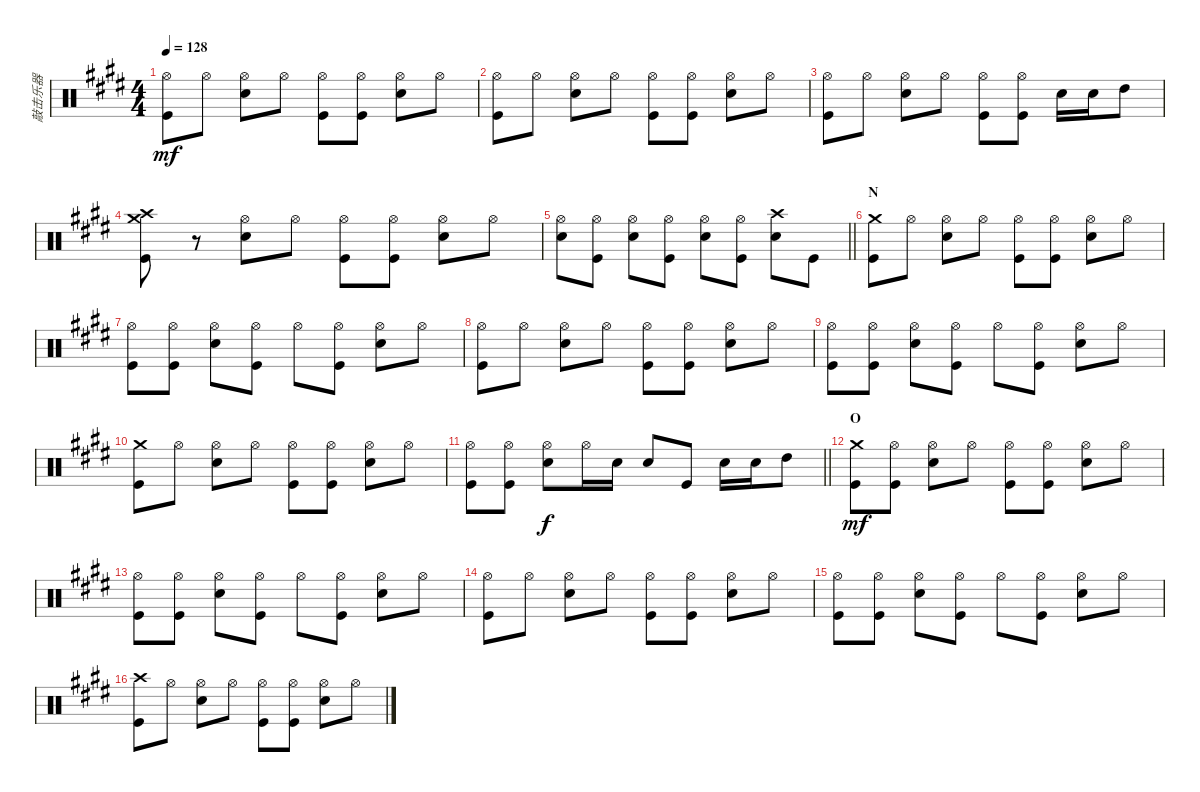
\track ("敲击乐器" "敲击乐器") {instrument percussion}
\staff {score}
\articulation defaults
\ts (4 4)
\tempo 128
\clef neutral
\ks e
("Hi-Hat (open)" "Kick (hit)").8{dy mf} "Hi-Hat (open)".8 ("Hi-Hat (open)" "Snare (hit) 2").8 "Hi-Hat (open)".8 ("Hi-Hat (open)" "Kick (hit)").8 ("Hi-Hat (open)" "Kick (hit)").8 ("Hi-Hat (open)" "Snare (hit) 2").8 "Hi-Hat (open)".8 |
("Hi-Hat (open)" "Kick (hit)").8 "Hi-Hat (open)".8 ("Hi-Hat (open)" "Snare (hit) 2").8 "Hi-Hat (open)".8 ("Hi-Hat (open)" "Kick (hit)").8 ("Hi-Hat (open)" "Kick (hit)").8 ("Hi-Hat (open)" "Snare (hit) 2").8 "Hi-Hat (open)".8 |
("Hi-Hat (open)" "Kick (hit)").8 "Hi-Hat (open)".8 ("Hi-Hat (open)" "Snare (hit) 2").8 "Hi-Hat (open)".8 ("Hi-Hat (open)" "Kick (hit)").8 ("Hi-Hat (open)" "Kick (hit)").8 "Snare (hit) 2".16 "Snare (hit) 2".16 "High Tom (hit)".8 |
("Crash medium (hit)" "Crash high (hit)" "Kick (hit)").8 r.8 ("Hi-Hat (open)" "Snare (hit) 2").8 "Hi-Hat (open)".8 ("Hi-Hat (open)" "Kick (hit)").8 ("Hi-Hat (open)" "Kick (hit)").8 ("Hi-Hat (open)" "Snare (hit) 2").8 "Hi-Hat (open)".8 |
\barLineRight lightlight
("Hi-Hat (open)" "Snare (hit) 2").8 ("Hi-Hat (open)" "Kick (hit)").8 ("Hi-Hat (open)" "Snare (hit) 2").8 ("Hi-Hat (open)" "Kick (hit)").8 ("Hi-Hat (open)" "Snare (hit) 2").8 ("Hi-Hat (open)" "Kick (hit)").8 ("Crash high (hit)" "Snare (hit) 2").8 "Kick (hit)".8 |
\section ("" "N")
("Crash medium (hit)" "Kick (hit)").8 "Hi-Hat (open)".8 ("Hi-Hat (open)" "Snare (hit) 2").8 "Hi-Hat (open)".8 ("Hi-Hat (open)" "Kick (hit)").8 ("Hi-Hat (open)" "Kick (hit)").8 ("Hi-Hat (open)" "Snare (hit) 2").8 "Hi-Hat (open)".8 |
("Hi-Hat (open)" "Kick (hit)").8 ("Hi-Hat (open)" "Kick (hit)").8 ("Hi-Hat (open)" "Snare (hit) 2").8 ("Hi-Hat (open)" "Kick (hit)").8 "Hi-Hat (open)".8 ("Hi-Hat (open)" "Kick (hit)").8 ("Hi-Hat (open)" "Snare (hit) 2").8 "Hi-Hat (open)".8 |
("Hi-Hat (open)" "Kick (hit)").8 "Hi-Hat (open)".8 ("Hi-Hat (open)" "Snare (hit) 2").8 "Hi-Hat (open)".8 ("Hi-Hat (open)" "Kick (hit)").8 ("Hi-Hat (open)" "Kick (hit)").8 ("Hi-Hat (open)" "Snare (hit) 2").8 "Hi-Hat (open)".8 |
("Hi-Hat (open)" "Kick (hit)").8 ("Hi-Hat (open)" "Kick (hit)").8 ("Hi-Hat (open)" "Snare (hit) 2").8 ("Hi-Hat (open)" "Kick (hit)").8 "Hi-Hat (open)".8 ("Hi-Hat (open)" "Kick (hit)").8 ("Hi-Hat (open)" "Snare (hit) 2").8 "Hi-Hat (open)".8 |
("Crash medium (hit)" "Kick (hit)").8 "Hi-Hat (open)".8 ("Hi-Hat (open)" "Snare (hit) 2").8 "Hi-Hat (open)".8 ("Hi-Hat (open)" "Kick (hit)").8 ("Hi-Hat (open)" "Kick (hit)").8 ("Hi-Hat (open)" "Snare (hit) 2").8 "Hi-Hat (open)".8 |
\barLineRight lightlight
("Hi-Hat (open)" "Kick (hit)").8 ("Hi-Hat (open)" "Kick (hit)").8 ("Hi-Hat (open)" "Snare (hit) 2").8{dy f} "Hi-Hat (open)".16 "Snare (hit) 2".16 "Snare (hit) 2".8 "Kick (hit)".8 "Snare (hit) 2".16 "Snare (hit) 2".16 "High Tom (hit)".8 |
\section ("" "O")
("Crash medium (hit)" "Kick (hit)").8{dy mf} ("Hi-Hat (open)" "Kick (hit)").8 ("Hi-Hat (open)" "Snare (hit) 2").8 "Hi-Hat (open)".8 ("Hi-Hat (open)" "Kick (hit)").8 ("Hi-Hat (open)" "Kick (hit)").8 ("Hi-Hat (open)" "Snare (hit) 2").8 "Hi-Hat (open)".8 |
("Hi-Hat (open)" "Kick (hit)").8 ("Hi-Hat (open)" "Kick (hit)").8 ("Hi-Hat (open)" "Snare (hit) 2").8 ("Hi-Hat (open)" "Kick (hit)").8 "Hi-Hat (open)".8 ("Hi-Hat (open)" "Kick (hit)").8 ("Hi-Hat (open)" "Snare (hit) 2").8 "Hi-Hat (open)".8 |
("Hi-Hat (open)" "Kick (hit)").8 "Hi-Hat (open)".8 ("Hi-Hat (open)" "Snare (hit) 2").8 "Hi-Hat (open)".8 ("Hi-Hat (open)" "Kick (hit)").8 ("Hi-Hat (open)" "Kick (hit)").8 ("Hi-Hat (open)" "Snare (hit) 2").8 "Hi-Hat (open)".8 |
("Hi-Hat (open)" "Kick (hit)").8 ("Hi-Hat (open)" "Kick (hit)").8 ("Hi-Hat (open)" "Snare (hit) 2").8 ("Hi-Hat (open)" "Kick (hit)").8 "Hi-Hat (open)".8 ("Hi-Hat (open)" "Kick (hit)").8 ("Hi-Hat (open)" "Snare (hit) 2").8 "Hi-Hat (open)".8 |
("Crash high (hit)" "Kick (hit)").8 "Hi-Hat (open)".8 ("Hi-Hat (open)" "Snare (hit) 2").8 "Hi-Hat (open)".8 ("Hi-Hat (open)" "Kick (hit)").8 ("Hi-Hat (open)" "Kick (hit)").8 ("Hi-Hat (open)" "Snare (hit) 2").8 "Hi-Hat (open)".8
